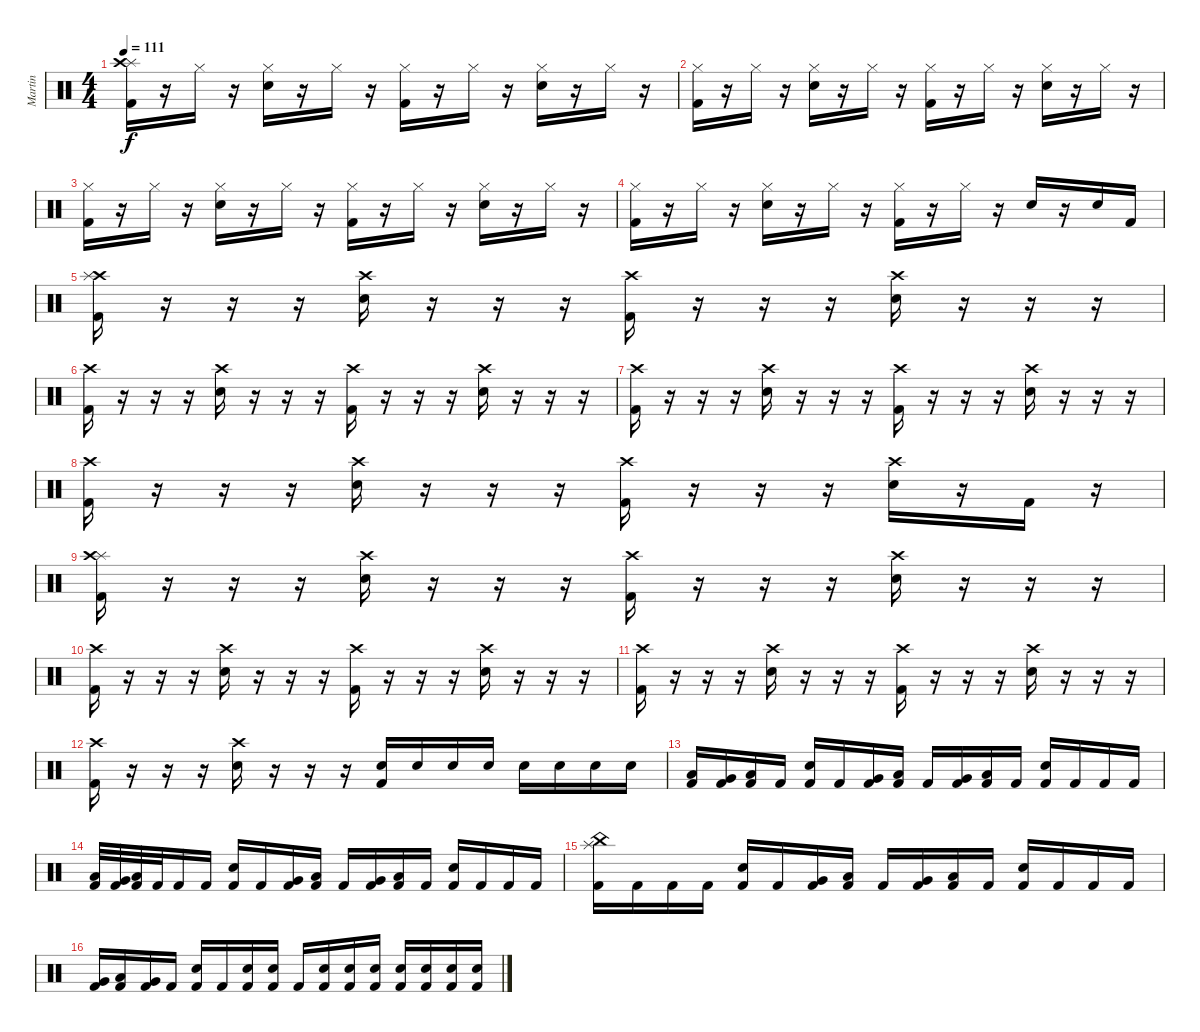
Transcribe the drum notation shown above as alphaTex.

\track ("Martin" "Martin") {instrument percussion}
\staff {score}
\articulation defaults
\ts (4 4)
\tempo 111
\clef neutral
\ks c
("Kick (hit) 2" "Splash (hit)" "Crash high (hit)").16{dy f} r.16 "Hi-Hat (closed)".16 r.16 ("Electric Snare (hit)" "Hi-Hat (closed)").16 r.16 "Hi-Hat (closed)".16 r.16 ("Kick (hit) 2" "Hi-Hat (closed)").16 r.16 "Hi-Hat (closed)".16 r.16 ("Electric Snare (hit)" "Hi-Hat (closed)").16 r.16 "Hi-Hat (closed)".16 r.16 |
("Kick (hit) 2" "Hi-Hat (closed)").16 r.16 "Hi-Hat (closed)".16 r.16 ("Electric Snare (hit)" "Hi-Hat (closed)").16 r.16 "Hi-Hat (closed)".16 r.16 ("Kick (hit) 2" "Hi-Hat (closed)").16 r.16 "Hi-Hat (closed)".16 r.16 ("Electric Snare (hit)" "Hi-Hat (closed)").16 r.16 "Hi-Hat (closed)".16 r.16 |
("Kick (hit) 2" "Hi-Hat (closed)").16 r.16 "Hi-Hat (closed)".16 r.16 ("Electric Snare (hit)" "Hi-Hat (closed)").16 r.16 "Hi-Hat (closed)".16 r.16 ("Kick (hit) 2" "Hi-Hat (closed)").16 r.16 "Hi-Hat (closed)".16 r.16 ("Electric Snare (hit)" "Hi-Hat (closed)").16 r.16 "Hi-Hat (closed)".16 r.16 |
("Kick (hit) 2" "Hi-Hat (closed)").16 r.16 "Hi-Hat (closed)".16 r.16 ("Electric Snare (hit)" "Hi-Hat (closed)").16 r.16 "Hi-Hat (closed)".16 r.16 ("Kick (hit) 2" "Hi-Hat (closed)").16 r.16 "Hi-Hat (closed)".16 r.16 "Electric Snare (hit)".16 r.16 "Electric Snare (hit)".16 "Kick (hit) 2".16 |
("Kick (hit) 2" "Crash high (hit)" "Splash (hit)").16 r.16 r.16 r.16 ("Electric Snare (hit)" "Crash high (hit)").16 r.16 r.16 r.16 ("Kick (hit) 2" "Crash high (hit)").16 r.16 r.16 r.16 ("Electric Snare (hit)" "Crash high (hit)").16 r.16 r.16 r.16 |
("Kick (hit) 2" "Crash high (hit)").16 r.16 r.16 r.16 ("Electric Snare (hit)" "Crash high (hit)").16 r.16 r.16 r.16 ("Kick (hit) 2" "Crash high (hit)").16 r.16 r.16 r.16 ("Electric Snare (hit)" "Crash high (hit)").16 r.16 r.16 r.16 |
("Kick (hit) 2" "Crash high (hit)").16 r.16 r.16 r.16 ("Electric Snare (hit)" "Crash high (hit)").16 r.16 r.16 r.16 ("Kick (hit) 2" "Crash high (hit)").16 r.16 r.16 r.16 ("Electric Snare (hit)" "Crash high (hit)").16 r.16 r.16 r.16 |
("Kick (hit) 2" "Crash high (hit)").16 r.16 r.16 r.16 ("Electric Snare (hit)" "Crash high (hit)").16 r.16 r.16 r.16 ("Kick (hit) 2" "Crash high (hit)").16 r.16 r.16 r.16 ("Electric Snare (hit)" "Crash high (hit)").16 r.16 "Kick (hit) 2".16 r.16 |
("Kick (hit) 2" "Splash (hit)" "Crash high (hit)").16 r.16 r.16 r.16 ("Electric Snare (hit)" "Crash high (hit)").16 r.16 r.16 r.16 ("Kick (hit) 2" "Crash high (hit)").16 r.16 r.16 r.16 ("Electric Snare (hit)" "Crash high (hit)").16 r.16 r.16 r.16 |
("Kick (hit) 2" "Crash high (hit)").16 r.16 r.16 r.16 ("Electric Snare (hit)" "Crash high (hit)").16 r.16 r.16 r.16 ("Kick (hit) 2" "Crash high (hit)").16 r.16 r.16 r.16 ("Electric Snare (hit)" "Crash high (hit)").16 r.16 r.16 r.16 |
("Kick (hit) 2" "Crash high (hit)").16 r.16 r.16 r.16 ("Electric Snare (hit)" "Crash high (hit)").16 r.16 r.16 r.16 ("Kick (hit) 2" "Crash high (hit)").16 r.16 r.16 r.16 ("Electric Snare (hit)" "Crash high (hit)").16 r.16 r.16 r.16 |
("Kick (hit) 2" "Crash high (hit)").16 r.16 r.16 r.16 ("Electric Snare (hit)" "Crash high (hit)").16 r.16 r.16 r.16 ("Kick (hit) 2" "Electric Snare (hit)").16 "Electric Snare (hit)".16 "Electric Snare (hit)".16 "Electric Snare (hit)".16 "Electric Snare (hit)".16 "Electric Snare (hit)".16 "Electric Snare (hit)".16 "Electric Snare (hit)".16 |
("Kick (hit) 2" "Low Tom (hit)").16 ("Kick (hit) 2" "Very Low Tom (hit)").16 ("Kick (hit) 2" "Low Floor Tom (hit)").16 "Kick (hit) 2".16 ("Kick (hit) 2" "Electric Snare (hit)").16 "Kick (hit) 2".16 ("Kick (hit) 2" "Very Low Tom (hit)").16 ("Kick (hit) 2" "Low Tom (hit)").16 "Kick (hit) 2".16 ("Kick (hit) 2" "Very Low Tom (hit)").16 ("Kick (hit) 2" "Low Tom (hit)").16 "Kick (hit) 2".16 ("Kick (hit) 2" "Electric Snare (hit)").16 "Kick (hit) 2".16 "Kick (hit) 2".16 "Kick (hit) 2".16 |
("Kick (hit) 2" "Low Tom (hit)").32 ("Kick (hit) 2" "Very Low Tom (hit)").32 ("Kick (hit) 2" "Low Floor Tom (hit)").32 "Kick (hit) 2".32 "Kick (hit) 2".16 "Kick (hit) 2".16 ("Kick (hit) 2" "Electric Snare (hit)").16 "Kick (hit) 2".16 ("Kick (hit) 2" "Very Low Tom (hit)").16 ("Kick (hit) 2" "Low Tom (hit)").16 "Kick (hit) 2".16 ("Kick (hit) 2" "Very Low Tom (hit)").16 ("Kick (hit) 2" "Low Tom (hit)").16 "Kick (hit) 2".16 ("Kick (hit) 2" "Electric Snare (hit)").16 "Kick (hit) 2".16 "Kick (hit) 2".16 "Kick (hit) 2".16 |
("Kick (hit) 2" "Splash (hit)" "China (hit)").16 "Kick (hit) 2".16 "Kick (hit) 2".16 "Kick (hit) 2".16 ("Kick (hit) 2" "Electric Snare (hit)").16 "Kick (hit) 2".16 ("Kick (hit) 2" "Very Low Tom (hit)").16 ("Kick (hit) 2" "Low Tom (hit)").16 "Kick (hit) 2".16 ("Kick (hit) 2" "Very Low Tom (hit)").16 ("Kick (hit) 2" "Low Tom (hit)").16 "Kick (hit) 2".16 ("Kick (hit) 2" "Electric Snare (hit)").16 "Kick (hit) 2".16 "Kick (hit) 2".16 "Kick (hit) 2".16 |
("Kick (hit) 2" "Very Low Tom (hit)").16 ("Kick (hit) 2" "Low Tom (hit)").16 ("Kick (hit) 2" "Very Low Tom (hit)").16 "Kick (hit) 2".16 ("Kick (hit) 2" "Electric Snare (hit)").16 "Kick (hit) 2".16 ("Kick (hit) 2" "Electric Snare (hit)").16 ("Kick (hit) 2" "Electric Snare (hit)").16 "Kick (hit) 2".16 ("Kick (hit) 2" "Electric Snare (hit)").16 ("Kick (hit) 2" "Electric Snare (hit)").16 ("Kick (hit) 2" "Electric Snare (hit)").16 ("Kick (hit) 2" "Electric Snare (hit)").16 ("Kick (hit) 2" "Electric Snare (hit)").16 ("Kick (hit) 2" "Electric Snare (hit)").16 ("Kick (hit) 2" "Electric Snare (hit)").16
